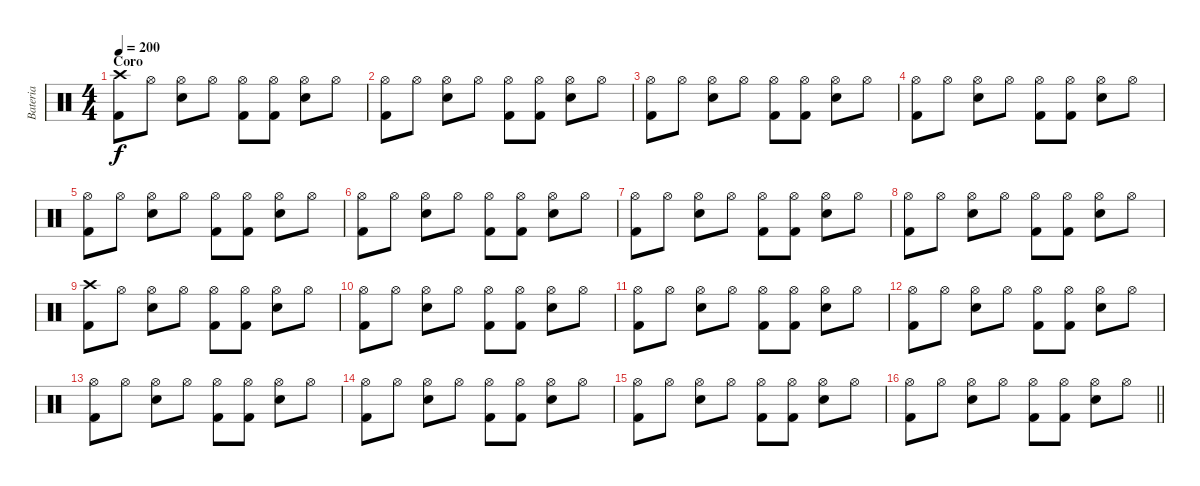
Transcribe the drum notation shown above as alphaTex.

\track ("Bateria" "Bateria") {instrument percussion}
\staff {score}
\articulation defaults
\ts (4 4)
\section ("" "Coro")
\tempo 200
\clef neutral
\ks c
("Crash high (hit)" "Kick (hit) 2").8{dy f} "Hi-Hat (open)".8 ("Hi-Hat (open)" "Snare (hit) 2").8 "Hi-Hat (open)".8 ("Hi-Hat (open)" "Kick (hit) 2").8 ("Hi-Hat (open)" "Kick (hit) 2").8 ("Hi-Hat (open)" "Snare (hit) 2").8 "Hi-Hat (open)".8 |
("Hi-Hat (open)" "Kick (hit) 2").8 "Hi-Hat (open)".8 ("Hi-Hat (open)" "Snare (hit) 2").8 "Hi-Hat (open)".8 ("Hi-Hat (open)" "Kick (hit) 2").8 ("Hi-Hat (open)" "Kick (hit) 2").8 ("Hi-Hat (open)" "Snare (hit) 2").8 "Hi-Hat (open)".8 |
("Hi-Hat (open)" "Kick (hit) 2").8 "Hi-Hat (open)".8 ("Hi-Hat (open)" "Snare (hit) 2").8 "Hi-Hat (open)".8 ("Hi-Hat (open)" "Kick (hit) 2").8 ("Hi-Hat (open)" "Kick (hit) 2").8 ("Hi-Hat (open)" "Snare (hit) 2").8 "Hi-Hat (open)".8 |
("Hi-Hat (open)" "Kick (hit) 2").8 "Hi-Hat (open)".8 ("Hi-Hat (open)" "Snare (hit) 2").8 "Hi-Hat (open)".8 ("Hi-Hat (open)" "Kick (hit) 2").8 ("Hi-Hat (open)" "Kick (hit) 2").8 ("Hi-Hat (open)" "Snare (hit) 2").8 "Hi-Hat (open)".8 |
("Hi-Hat (open)" "Kick (hit) 2").8 "Hi-Hat (open)".8 ("Hi-Hat (open)" "Snare (hit) 2").8 "Hi-Hat (open)".8 ("Hi-Hat (open)" "Kick (hit) 2").8 ("Hi-Hat (open)" "Kick (hit) 2").8 ("Hi-Hat (open)" "Snare (hit) 2").8 "Hi-Hat (open)".8 |
("Hi-Hat (open)" "Kick (hit) 2").8 "Hi-Hat (open)".8 ("Hi-Hat (open)" "Snare (hit) 2").8 "Hi-Hat (open)".8 ("Hi-Hat (open)" "Kick (hit) 2").8 ("Hi-Hat (open)" "Kick (hit) 2").8 ("Hi-Hat (open)" "Snare (hit) 2").8 "Hi-Hat (open)".8 |
("Hi-Hat (open)" "Kick (hit) 2").8 "Hi-Hat (open)".8 ("Hi-Hat (open)" "Snare (hit) 2").8 "Hi-Hat (open)".8 ("Hi-Hat (open)" "Kick (hit) 2").8 ("Hi-Hat (open)" "Kick (hit) 2").8 ("Hi-Hat (open)" "Snare (hit) 2").8 "Hi-Hat (open)".8 |
("Hi-Hat (open)" "Kick (hit) 2").8 "Hi-Hat (open)".8 ("Hi-Hat (open)" "Snare (hit) 2").8 "Hi-Hat (open)".8 ("Hi-Hat (open)" "Kick (hit) 2").8 ("Hi-Hat (open)" "Kick (hit) 2").8 ("Hi-Hat (open)" "Snare (hit) 2").8 "Hi-Hat (open)".8 |
("Crash high (hit)" "Kick (hit) 2").8 "Hi-Hat (open)".8 ("Hi-Hat (open)" "Snare (hit) 2").8 "Hi-Hat (open)".8 ("Hi-Hat (open)" "Kick (hit) 2").8 ("Hi-Hat (open)" "Kick (hit) 2").8 ("Hi-Hat (open)" "Snare (hit) 2").8 "Hi-Hat (open)".8 |
("Hi-Hat (open)" "Kick (hit) 2").8 "Hi-Hat (open)".8 ("Hi-Hat (open)" "Snare (hit) 2").8 "Hi-Hat (open)".8 ("Hi-Hat (open)" "Kick (hit) 2").8 ("Hi-Hat (open)" "Kick (hit) 2").8 ("Hi-Hat (open)" "Snare (hit) 2").8 "Hi-Hat (open)".8 |
("Hi-Hat (open)" "Kick (hit) 2").8 "Hi-Hat (open)".8 ("Hi-Hat (open)" "Snare (hit) 2").8 "Hi-Hat (open)".8 ("Hi-Hat (open)" "Kick (hit) 2").8 ("Hi-Hat (open)" "Kick (hit) 2").8 ("Hi-Hat (open)" "Snare (hit) 2").8 "Hi-Hat (open)".8 |
("Hi-Hat (open)" "Kick (hit) 2").8 "Hi-Hat (open)".8 ("Hi-Hat (open)" "Snare (hit) 2").8 "Hi-Hat (open)".8 ("Hi-Hat (open)" "Kick (hit) 2").8 ("Hi-Hat (open)" "Kick (hit) 2").8 ("Hi-Hat (open)" "Snare (hit) 2").8 "Hi-Hat (open)".8 |
("Hi-Hat (open)" "Kick (hit) 2").8 "Hi-Hat (open)".8 ("Hi-Hat (open)" "Snare (hit) 2").8 "Hi-Hat (open)".8 ("Hi-Hat (open)" "Kick (hit) 2").8 ("Hi-Hat (open)" "Kick (hit) 2").8 ("Hi-Hat (open)" "Snare (hit) 2").8 "Hi-Hat (open)".8 |
("Hi-Hat (open)" "Kick (hit) 2").8 "Hi-Hat (open)".8 ("Hi-Hat (open)" "Snare (hit) 2").8 "Hi-Hat (open)".8 ("Hi-Hat (open)" "Kick (hit) 2").8 ("Hi-Hat (open)" "Kick (hit) 2").8 ("Hi-Hat (open)" "Snare (hit) 2").8 "Hi-Hat (open)".8 |
("Hi-Hat (open)" "Kick (hit) 2").8 "Hi-Hat (open)".8 ("Hi-Hat (open)" "Snare (hit) 2").8 "Hi-Hat (open)".8 ("Hi-Hat (open)" "Kick (hit) 2").8 ("Hi-Hat (open)" "Kick (hit) 2").8 ("Hi-Hat (open)" "Snare (hit) 2").8 "Hi-Hat (open)".8 |
\barLineRight lightlight
("Hi-Hat (open)" "Kick (hit) 2").8 "Hi-Hat (open)".8 ("Hi-Hat (open)" "Snare (hit) 2").8 "Hi-Hat (open)".8 ("Hi-Hat (open)" "Kick (hit) 2").8 ("Hi-Hat (open)" "Kick (hit) 2").8 ("Hi-Hat (open)" "Snare (hit) 2").8 "Hi-Hat (open)".8
